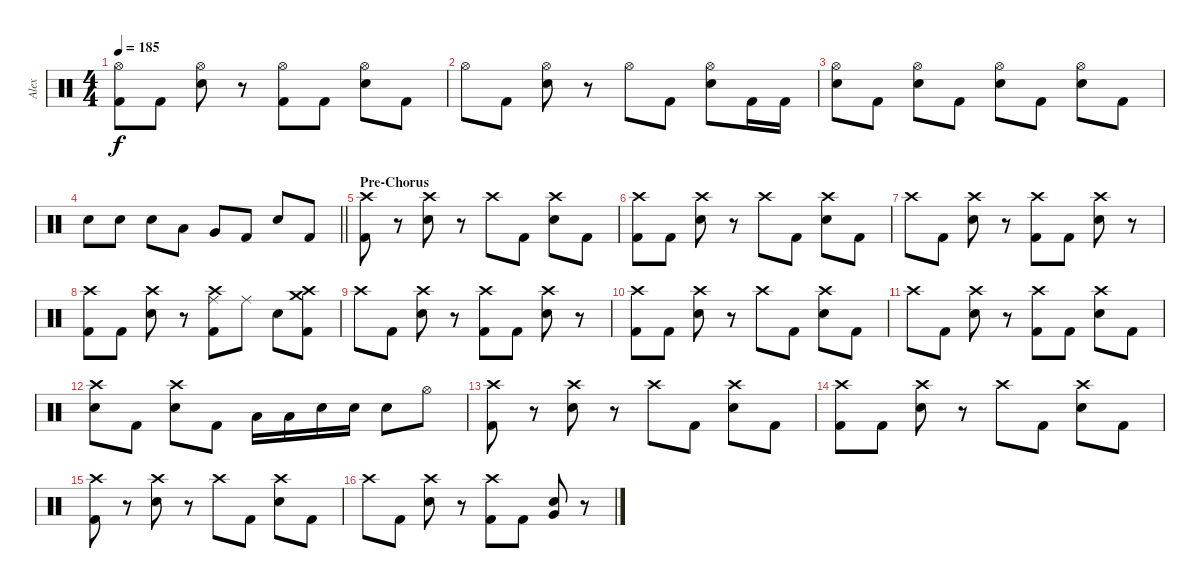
\track ("Alex" "Alex") {instrument percussion}
\staff {score}
\articulation defaults
\ts (4 4)
\tempo 185
\clef neutral
\ks c
("Hi-Hat (open)" "Kick (hit) 2").8{dy f} "Kick (hit) 2".8 ("Hi-Hat (open)" "Electric Snare (hit)").8 r.8 ("Hi-Hat (open)" "Kick (hit) 2").8 "Kick (hit) 2".8 ("Hi-Hat (open)" "Electric Snare (hit)").8 "Kick (hit) 2".8 |
"Hi-Hat (open)".8 "Kick (hit) 2".8 ("Hi-Hat (open)" "Electric Snare (hit)").8 r.8 "Hi-Hat (open)".8 "Kick (hit) 2".8 ("Hi-Hat (open)" "Electric Snare (hit)").8 "Kick (hit) 2".16 "Kick (hit) 2".16 |
("Hi-Hat (open)" "Electric Snare (hit)").8 "Kick (hit) 2".8 ("Hi-Hat (open)" "Electric Snare (hit)").8 "Kick (hit) 2".8 ("Hi-Hat (open)" "Electric Snare (hit)").8 "Kick (hit) 2".8 ("Hi-Hat (open)" "Electric Snare (hit)").8 "Kick (hit) 2".8 |
\barLineRight lightlight "Electric Snare (hit)".8 "Electric Snare (hit)".8 "Electric Snare (hit)".8 "Low Tom (hit)".8 "Very Low Tom (hit)".8 "Kick (hit) 2".8 "Electric Snare (hit)".8 "Kick (hit) 2".8
|
\section ("" "Pre-Chorus")
("Crash high (hit)" "Kick (hit) 2").8 r.8 ("Crash high (hit)" "Electric Snare (hit)").8 r.8 "Crash high (hit)".8 "Kick (hit) 2".8 ("Crash high (hit)" "Electric Snare (hit)").8 "Kick (hit) 2".8 |
("Crash high (hit)" "Kick (hit) 2").8 "Kick (hit) 2".8 ("Crash high (hit)" "Electric Snare (hit)").8 r.8 "Crash high (hit)".8 "Kick (hit) 2".8 ("Crash high (hit)" "Electric Snare (hit)").8 "Kick (hit) 2".8 |
"Crash high (hit)".8 "Kick (hit) 2".8 ("Crash high (hit)" "Electric Snare (hit)").8 r.8 ("Crash high (hit)" "Kick (hit) 2").8 "Kick (hit) 2".8 ("Crash high (hit)" "Electric Snare (hit)").8 r.8 |
("Crash high (hit)" "Kick (hit) 2").8 "Kick (hit) 2".8 ("Crash high (hit)" "Electric Snare (hit)").8 r.8 ("Crash high (hit)" "Ride (middle)" "Kick (hit) 2").8 "Ride (middle)".8 "Electric Snare (hit)".8 ("Crash medium (hit)" "Crash high (hit)" "Kick (hit) 2").8 |
"Crash high (hit)".8 "Kick (hit) 2".8 ("Crash high (hit)" "Electric Snare (hit)").8 r.8 ("Crash high (hit)" "Kick (hit) 2").8 "Kick (hit) 2".8 ("Crash high (hit)" "Electric Snare (hit)").8 r.8 |
("Crash high (hit)" "Kick (hit) 2").8 "Kick (hit) 2".8 ("Crash high (hit)" "Electric Snare (hit)").8 r.8 "Crash high (hit)".8 "Kick (hit) 2".8 ("Crash high (hit)" "Electric Snare (hit)").8 "Kick (hit) 2".8 |
"Crash high (hit)".8 "Kick (hit) 2".8 ("Crash high (hit)" "Electric Snare (hit)").8 r.8 ("Crash high (hit)" "Kick (hit) 2").8 "Kick (hit) 2".8 ("Crash high (hit)" "Electric Snare (hit)").8 "Kick (hit) 2".8 |
("Crash high (hit)" "Electric Snare (hit)").8 "Kick (hit) 2".8 ("Crash high (hit)" "Electric Snare (hit)").8 "Kick (hit) 2".8 "Low Tom (hit)".16 "Low Tom (hit)".16 "Electric Snare (hit)".16 "Electric Snare (hit)".16 "Electric Snare (hit)".8 "Hi-Hat (open)".8 |
("Crash high (hit)" "Kick (hit) 2").8 r.8 ("Crash high (hit)" "Electric Snare (hit)").8 r.8 "Crash high (hit)".8 "Kick (hit) 2".8 ("Crash high (hit)" "Electric Snare (hit)").8 "Kick (hit) 2".8 |
("Crash high (hit)" "Kick (hit) 2").8 "Kick (hit) 2".8 ("Crash high (hit)" "Electric Snare (hit)").8 r.8 "Crash high (hit)".8 "Kick (hit) 2".8 ("Crash high (hit)" "Electric Snare (hit)").8 "Kick (hit) 2".8 |
("Crash high (hit)" "Kick (hit) 2").8 r.8 ("Crash high (hit)" "Electric Snare (hit)").8 r.8 "Crash high (hit)".8 "Kick (hit) 2".8 ("Crash high (hit)" "Electric Snare (hit)").8 "Kick (hit) 2".8 |
"Crash high (hit)".8 "Kick (hit) 2".8 ("Crash high (hit)" "Electric Snare (hit)").8 r.8 ("Crash high (hit)" "Kick (hit) 2").8 "Kick (hit) 2".8 ("Very Low Tom (hit)" "Electric Snare (hit)").8 r.8
